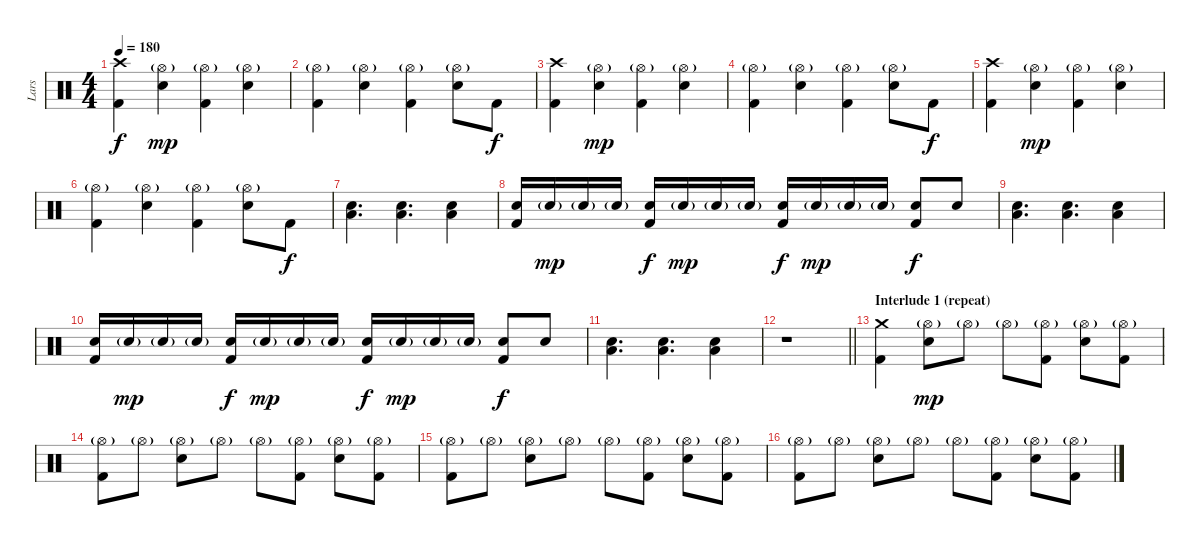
\track ("Lars" "Lars") {instrument percussion}
\staff {score}
\articulation defaults
\ts (4 4)
\tempo 180
\clef neutral
\ks c
("Crash high (hit)" "Kick (hit) 2").4{dy f} ("Hi-Hat (open)"{g} "Electric Snare (hit)").4{dy mp} ("Hi-Hat (open)"{g} "Kick (hit) 2").4 ("Hi-Hat (open)"{g} "Electric Snare (hit)").4 |
("Hi-Hat (open)"{g} "Kick (hit) 2").4 ("Hi-Hat (open)"{g} "Electric Snare (hit)").4 ("Hi-Hat (open)"{g} "Kick (hit) 2").4 ("Hi-Hat (open)"{g} "Electric Snare (hit)").8 "Kick (hit) 2".8{dy f} |
("Crash high (hit)" "Kick (hit) 2").4 ("Hi-Hat (open)"{g} "Electric Snare (hit)").4{dy mp} ("Hi-Hat (open)"{g} "Kick (hit) 2").4 ("Hi-Hat (open)"{g} "Electric Snare (hit)").4 |
("Hi-Hat (open)"{g} "Kick (hit) 2").4 ("Hi-Hat (open)"{g} "Electric Snare (hit)").4 ("Hi-Hat (open)"{g} "Kick (hit) 2").4 ("Hi-Hat (open)"{g} "Electric Snare (hit)").8 "Kick (hit) 2".8{dy f} |
("Crash high (hit)" "Kick (hit) 2").4 ("Hi-Hat (open)"{g} "Electric Snare (hit)").4{dy mp} ("Hi-Hat (open)"{g} "Kick (hit) 2").4 ("Hi-Hat (open)"{g} "Electric Snare (hit)").4 |
("Hi-Hat (open)"{g} "Kick (hit) 2").4 ("Hi-Hat (open)"{g} "Electric Snare (hit)").4 ("Hi-Hat (open)"{g} "Kick (hit) 2").4 ("Hi-Hat (open)"{g} "Electric Snare (hit)").8 "Kick (hit) 2".8{dy f} |
("Low Floor Tom (hit)" "Electric Snare (hit)").4{d} ("Low Floor Tom (hit)" "Electric Snare (hit)").4{d} ("Low Floor Tom (hit)" "Electric Snare (hit)").4 |
("Electric Snare (hit)" "Kick (hit) 2").16 "Electric Snare (hit)"{g}.16{dy mp} "Electric Snare (hit)"{g}.16 "Electric Snare (hit)"{g}.16 ("Electric Snare (hit)" "Kick (hit) 2").16{dy f} "Electric Snare (hit)"{g}.16{dy mp} "Electric Snare (hit)"{g}.16 "Electric Snare (hit)"{g}.16 ("Electric Snare (hit)" "Kick (hit) 2").16{dy f} "Electric Snare (hit)"{g}.16{dy mp} "Electric Snare (hit)"{g}.16 "Electric Snare (hit)"{g}.16 ("Electric Snare (hit)" "Kick (hit) 2").8{dy f} "Electric Snare (hit)".8 |
("Low Floor Tom (hit)" "Electric Snare (hit)").4{d} ("Low Floor Tom (hit)" "Electric Snare (hit)").4{d} ("Low Floor Tom (hit)" "Electric Snare (hit)").4 |
("Electric Snare (hit)" "Kick (hit) 2").16 "Electric Snare (hit)"{g}.16{dy mp} "Electric Snare (hit)"{g}.16 "Electric Snare (hit)"{g}.16 ("Electric Snare (hit)" "Kick (hit) 2").16{dy f} "Electric Snare (hit)"{g}.16{dy mp} "Electric Snare (hit)"{g}.16 "Electric Snare (hit)"{g}.16 ("Electric Snare (hit)" "Kick (hit) 2").16{dy f} "Electric Snare (hit)"{g}.16{dy mp} "Electric Snare (hit)"{g}.16 "Electric Snare (hit)"{g}.16 ("Electric Snare (hit)" "Kick (hit) 2").8{dy f} "Electric Snare (hit)".8 |
("Low Floor Tom (hit)" "Electric Snare (hit)").4{d} ("Low Floor Tom (hit)" "Electric Snare (hit)").4{d} ("Low Floor Tom (hit)" "Electric Snare (hit)").4 |
\barLineRight lightlight
r.1 |
\section ("" "Interlude 1 (repeat)")
("Crash medium (hit)" "Kick (hit) 2").4 ("Hi-Hat (open)"{g} "Electric Snare (hit)").8{dy mp} "Hi-Hat (open)"{g}.8 "Hi-Hat (open)"{g}.8 ("Hi-Hat (open)"{g} "Kick (hit) 2").8 ("Hi-Hat (open)"{g} "Electric Snare (hit)").8 ("Hi-Hat (open)"{g} "Kick (hit) 2").8 |
("Hi-Hat (open)"{g} "Kick (hit) 2").8 "Hi-Hat (open)"{g}.8 ("Hi-Hat (open)"{g} "Electric Snare (hit)").8 "Hi-Hat (open)"{g}.8 "Hi-Hat (open)"{g}.8 ("Hi-Hat (open)"{g} "Kick (hit) 2").8 ("Hi-Hat (open)"{g} "Electric Snare (hit)").8 ("Hi-Hat (open)"{g} "Kick (hit) 2").8 |
("Hi-Hat (open)"{g} "Kick (hit) 2").8 "Hi-Hat (open)"{g}.8 ("Hi-Hat (open)"{g} "Electric Snare (hit)").8 "Hi-Hat (open)"{g}.8 "Hi-Hat (open)"{g}.8 ("Hi-Hat (open)"{g} "Kick (hit) 2").8 ("Hi-Hat (open)"{g} "Electric Snare (hit)").8 ("Hi-Hat (open)"{g} "Kick (hit) 2").8 |
("Hi-Hat (open)"{g} "Kick (hit) 2").8 "Hi-Hat (open)"{g}.8 ("Hi-Hat (open)"{g} "Electric Snare (hit)").8 "Hi-Hat (open)"{g}.8 "Hi-Hat (open)"{g}.8 ("Hi-Hat (open)"{g} "Kick (hit) 2").8 ("Hi-Hat (open)"{g} "Electric Snare (hit)").8 ("Hi-Hat (open)"{g} "Kick (hit) 2").8
